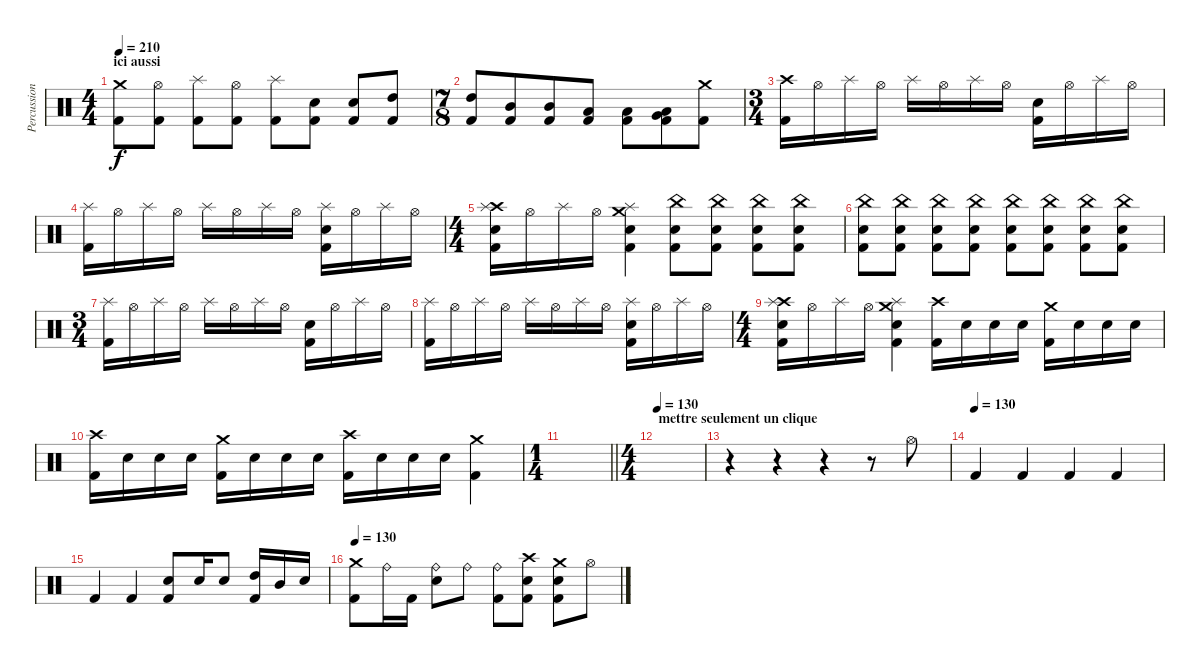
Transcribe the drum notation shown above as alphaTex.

\track ("Percussions" "Percussion") {instrument percussion}
\staff {score}
\articulation defaults
\ts (4 4)
\section ("" "ici aussi")
\tempo 210
\clef neutral
\ks c
("Crash medium (hit)" "Kick (hit) 2").8{dy f} ("Hi-Hat (open)" "Kick (hit) 2").8 ("Splash (hit)" "Kick (hit) 2").8 ("Hi-Hat (open)" "Kick (hit) 2").8 ("Splash (hit)" "Kick (hit) 2").8 ("Electric Snare (hit)" "Kick (hit) 2").8 ("Electric Snare (hit)" "Kick (hit) 2").8 ("High Tom (hit)" "Kick (hit) 2").8 |
\ts (7 8)
("High Tom (hit)" "Kick (hit) 2").8 ("Mid Tom (hit)" "Kick (hit) 2").8 ("Mid Tom (hit)" "Kick (hit) 2").8 ("Low Tom (hit)" "Kick (hit) 2").8 ("Low Tom (hit)" "Kick (hit) 2").8 ("Very Low Tom (hit)" "Low Floor Tom (hit)" "Kick (hit) 2").8 ("Crash medium (hit)" "Kick (hit) 2").8 |
\ts (3 4)
("Crash high (hit)" "Kick (hit) 2").16 "Hi-Hat (open)".16 "Splash (hit)".16 "Hi-Hat (open)".16 "Splash (hit)".16 "Hi-Hat (open)".16 "Splash (hit)".16 "Hi-Hat (open)".16 ("Electric Snare (hit)" "Kick (hit) 2").16 "Hi-Hat (open)".16 "Splash (hit)".16 "Hi-Hat (open)".16 |
("Splash (hit)" "Kick (hit) 2").16 "Hi-Hat (open)".16 "Splash (hit)".16 "Hi-Hat (open)".16 "Splash (hit)".16 "Hi-Hat (open)".16 "Splash (hit)".16 "Hi-Hat (open)".16 ("Splash (hit)" "Electric Snare (hit)" "Kick (hit) 2").16 "Hi-Hat (open)".16 "Splash (hit)".16 "Hi-Hat (open)".16 |
\ts (4 4)
("Crash high (hit)" "Splash (hit)" "Electric Snare (hit)" "Kick (hit) 2").16 "Hi-Hat (open)".16 "Splash (hit)".16 "Hi-Hat (open)".16 ("Crash medium (hit)" "Splash (hit)" "Electric Snare (hit)" "Kick (hit) 2").4 ("China (hit)" "Electric Snare (hit)" "Kick (hit) 2").8 ("China (hit)" "Electric Snare (hit)" "Kick (hit) 2").8 ("China (hit)" "Electric Snare (hit)" "Kick (hit) 2").8 ("China (hit)" "Electric Snare (hit)" "Kick (hit) 2").8 |
("China (hit)" "Electric Snare (hit)" "Kick (hit) 2").8 ("China (hit)" "Electric Snare (hit)" "Kick (hit) 2").8 ("China (hit)" "Electric Snare (hit)" "Kick (hit) 2").8 ("China (hit)" "Electric Snare (hit)" "Kick (hit) 2").8 ("China (hit)" "Electric Snare (hit)" "Kick (hit) 2").8 ("China (hit)" "Electric Snare (hit)" "Kick (hit) 2").8 ("China (hit)" "Electric Snare (hit)" "Kick (hit) 2").8 ("China (hit)" "Electric Snare (hit)" "Kick (hit) 2").8 |
\ts (3 4)
("Splash (hit)" "Kick (hit) 2").16 "Hi-Hat (open)".16 "Splash (hit)".16 "Hi-Hat (open)".16 "Splash (hit)".16 "Hi-Hat (open)".16 "Splash (hit)".16 "Hi-Hat (open)".16 ("Electric Snare (hit)" "Kick (hit) 2").16 "Hi-Hat (open)".16 "Splash (hit)".16 "Hi-Hat (open)".16 |
("Splash (hit)" "Kick (hit) 2").16 "Hi-Hat (open)".16 "Splash (hit)".16 "Hi-Hat (open)".16 "Splash (hit)".16 "Hi-Hat (open)".16 "Splash (hit)".16 "Hi-Hat (open)".16 ("Splash (hit)" "Electric Snare (hit)" "Kick (hit) 2").16 "Hi-Hat (open)".16 "Splash (hit)".16 "Hi-Hat (open)".16 |
\ts (4 4)
("Crash high (hit)" "Splash (hit)" "Electric Snare (hit)" "Kick (hit) 2").16 "Hi-Hat (open)".16 "Splash (hit)".16 "Hi-Hat (open)".16 ("Crash medium (hit)" "Splash (hit)" "Electric Snare (hit)" "Kick (hit) 2").4 ("Crash high (hit)" "Kick (hit) 2").16 "Electric Snare (hit)".16 "Electric Snare (hit)".16 "Electric Snare (hit)".16 ("Crash medium (hit)" "Kick (hit) 2").16 "Electric Snare (hit)".16 "Electric Snare (hit)".16 "Electric Snare (hit)".16 |
("Crash high (hit)" "Kick (hit) 2").16 "Electric Snare (hit)".16 "Electric Snare (hit)".16 "Electric Snare (hit)".16 ("Crash medium (hit)" "Kick (hit) 2").16 "Electric Snare (hit)".16 "Electric Snare (hit)".16 "Electric Snare (hit)".16 ("Crash high (hit)" "Kick (hit) 2").16 "Electric Snare (hit)".16 "Electric Snare (hit)".16 "Electric Snare (hit)".16 ("Crash medium (hit)" "Kick (hit) 2").4 |
\ts (1 4)
\barLineRight lightlight
|
\ts (4 4)
\section ("" "mettre seulement un clique")
\tempo 130
|
r.4 r.4 r.4 r.8 "Hi-Hat (open)".8 |
\tempo (130)
"Kick (hit) 2".4 "Kick (hit) 2".4 "Kick (hit) 2".4 "Kick (hit) 2".4 |
"Kick (hit) 2".4 "Kick (hit) 2".4 ("Electric Snare (hit)" "Kick (hit) 2").8 "Electric Snare (hit)".16 "Electric Snare (hit)".8 ("High Tom (hit)" "Kick (hit) 2").16 "Mid Tom (hit)".16 "Electric Snare (hit)".16 |
\tempo 130
("Crash medium (hit)" "Kick (hit) 2").8 "Ride (bell)".16 "Kick (hit) 2".16 ("Ride (bell)" "Electric Snare (hit)").8 "Ride (bell)".8 ("Ride (bell)" "Kick (hit) 2").8 ("Crash high (hit)" "Electric Snare (hit)" "Kick (hit) 2").8 ("Crash medium (hit)" "Electric Snare (hit)" "Kick (hit) 2").8 "Hi-Hat (open)".8
